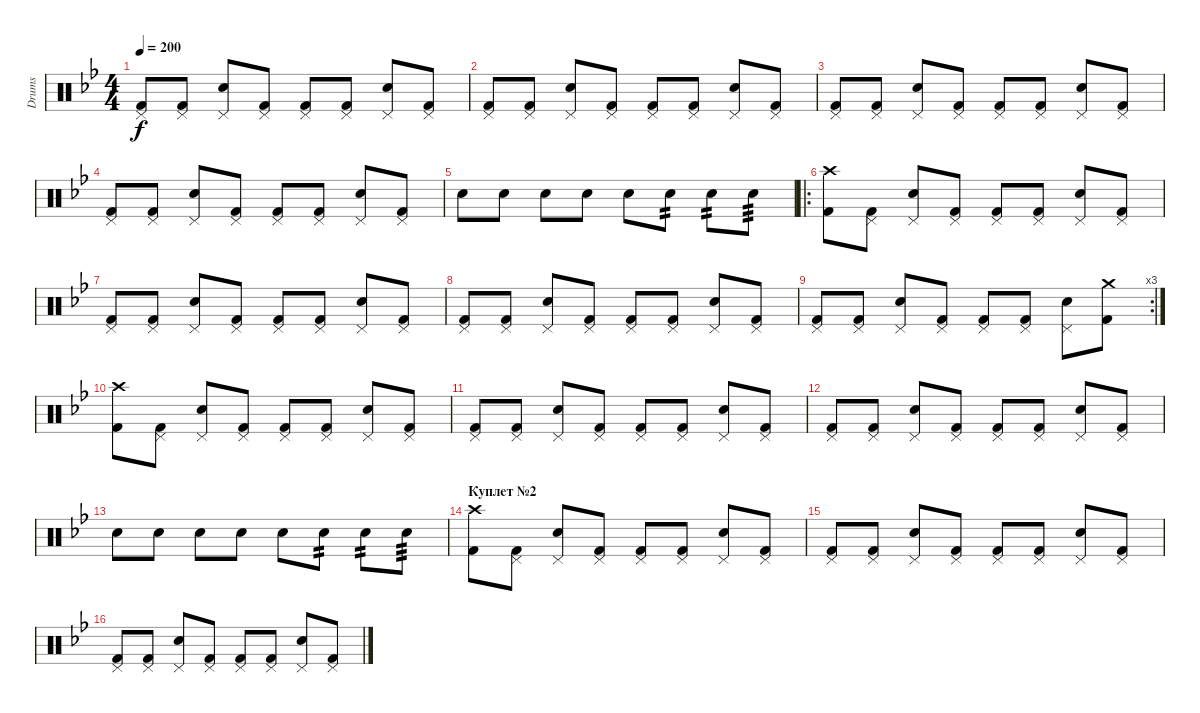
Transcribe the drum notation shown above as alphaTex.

\track ("Drums" "Drums") {instrument percussion}
\staff {score}
\articulation defaults
\ts (4 4)
\tempo 200
\clef neutral
\ks bb
("Pedal Hi-Hat (hit)" "Kick (hit) 2").8{dy f} ("Pedal Hi-Hat (hit)" "Kick (hit) 2").8 ("Pedal Hi-Hat (hit)" "Electric Snare (hit)").8 ("Pedal Hi-Hat (hit)" "Kick (hit) 2").8 ("Pedal Hi-Hat (hit)" "Kick (hit) 2").8 ("Pedal Hi-Hat (hit)" "Kick (hit) 2").8 ("Pedal Hi-Hat (hit)" "Electric Snare (hit)").8 ("Pedal Hi-Hat (hit)" "Kick (hit) 2").8 |
("Pedal Hi-Hat (hit)" "Kick (hit) 2").8 ("Pedal Hi-Hat (hit)" "Kick (hit) 2").8 ("Pedal Hi-Hat (hit)" "Electric Snare (hit)").8 ("Pedal Hi-Hat (hit)" "Kick (hit) 2").8 ("Pedal Hi-Hat (hit)" "Kick (hit) 2").8 ("Pedal Hi-Hat (hit)" "Kick (hit) 2").8 ("Pedal Hi-Hat (hit)" "Electric Snare (hit)").8 ("Pedal Hi-Hat (hit)" "Kick (hit) 2").8 |
("Pedal Hi-Hat (hit)" "Kick (hit) 2").8 ("Pedal Hi-Hat (hit)" "Kick (hit) 2").8 ("Pedal Hi-Hat (hit)" "Electric Snare (hit)").8 ("Pedal Hi-Hat (hit)" "Kick (hit) 2").8 ("Pedal Hi-Hat (hit)" "Kick (hit) 2").8 ("Pedal Hi-Hat (hit)" "Kick (hit) 2").8 ("Pedal Hi-Hat (hit)" "Electric Snare (hit)").8 ("Pedal Hi-Hat (hit)" "Kick (hit) 2").8 |
("Pedal Hi-Hat (hit)" "Kick (hit) 2").8 ("Pedal Hi-Hat (hit)" "Kick (hit) 2").8 ("Pedal Hi-Hat (hit)" "Electric Snare (hit)").8 ("Pedal Hi-Hat (hit)" "Kick (hit) 2").8 ("Pedal Hi-Hat (hit)" "Kick (hit) 2").8 ("Pedal Hi-Hat (hit)" "Kick (hit) 2").8 ("Pedal Hi-Hat (hit)" "Electric Snare (hit)").8 ("Pedal Hi-Hat (hit)" "Kick (hit) 2").8 |
"Electric Snare (hit)".8 "Electric Snare (hit)".8 "Electric Snare (hit)".8 "Electric Snare (hit)".8 "Electric Snare (hit)".8 "Electric Snare (hit)".8{tp 2} "Electric Snare (hit)".8{tp 2} "Electric Snare (hit)".8{tp 3} |
\ro
("Crash high (hit)" "Kick (hit) 2").8 ("Pedal Hi-Hat (hit)" "Kick (hit) 2").8 ("Pedal Hi-Hat (hit)" "Electric Snare (hit)").8 ("Pedal Hi-Hat (hit)" "Kick (hit) 2").8 ("Pedal Hi-Hat (hit)" "Kick (hit) 2").8 ("Pedal Hi-Hat (hit)" "Kick (hit) 2").8 ("Pedal Hi-Hat (hit)" "Electric Snare (hit)").8 ("Pedal Hi-Hat (hit)" "Kick (hit) 2").8 |
("Pedal Hi-Hat (hit)" "Kick (hit) 2").8 ("Pedal Hi-Hat (hit)" "Kick (hit) 2").8 ("Pedal Hi-Hat (hit)" "Electric Snare (hit)").8 ("Pedal Hi-Hat (hit)" "Kick (hit) 2").8 ("Pedal Hi-Hat (hit)" "Kick (hit) 2").8 ("Pedal Hi-Hat (hit)" "Kick (hit) 2").8 ("Pedal Hi-Hat (hit)" "Electric Snare (hit)").8 ("Pedal Hi-Hat (hit)" "Kick (hit) 2").8 |
("Pedal Hi-Hat (hit)" "Kick (hit) 2").8 ("Pedal Hi-Hat (hit)" "Kick (hit) 2").8 ("Pedal Hi-Hat (hit)" "Electric Snare (hit)").8 ("Pedal Hi-Hat (hit)" "Kick (hit) 2").8 ("Pedal Hi-Hat (hit)" "Kick (hit) 2").8 ("Pedal Hi-Hat (hit)" "Kick (hit) 2").8 ("Pedal Hi-Hat (hit)" "Electric Snare (hit)").8 ("Pedal Hi-Hat (hit)" "Kick (hit) 2").8 |
\rc 3
("Pedal Hi-Hat (hit)" "Kick (hit) 2").8 ("Pedal Hi-Hat (hit)" "Kick (hit) 2").8 ("Pedal Hi-Hat (hit)" "Electric Snare (hit)").8 ("Pedal Hi-Hat (hit)" "Kick (hit) 2").8 ("Pedal Hi-Hat (hit)" "Kick (hit) 2").8 ("Pedal Hi-Hat (hit)" "Kick (hit) 2").8 ("Pedal Hi-Hat (hit)" "Electric Snare (hit)").8 ("Crash medium (hit)" "Kick (hit) 2").8 |
("Crash high (hit)" "Kick (hit) 2").8 ("Pedal Hi-Hat (hit)" "Kick (hit) 2").8 ("Pedal Hi-Hat (hit)" "Electric Snare (hit)").8 ("Pedal Hi-Hat (hit)" "Kick (hit) 2").8 ("Pedal Hi-Hat (hit)" "Kick (hit) 2").8 ("Pedal Hi-Hat (hit)" "Kick (hit) 2").8 ("Pedal Hi-Hat (hit)" "Electric Snare (hit)").8 ("Pedal Hi-Hat (hit)" "Kick (hit) 2").8 |
("Pedal Hi-Hat (hit)" "Kick (hit) 2").8 ("Pedal Hi-Hat (hit)" "Kick (hit) 2").8 ("Pedal Hi-Hat (hit)" "Electric Snare (hit)").8 ("Pedal Hi-Hat (hit)" "Kick (hit) 2").8 ("Pedal Hi-Hat (hit)" "Kick (hit) 2").8 ("Pedal Hi-Hat (hit)" "Kick (hit) 2").8 ("Pedal Hi-Hat (hit)" "Electric Snare (hit)").8 ("Pedal Hi-Hat (hit)" "Kick (hit) 2").8 |
("Pedal Hi-Hat (hit)" "Kick (hit) 2").8 ("Pedal Hi-Hat (hit)" "Kick (hit) 2").8 ("Pedal Hi-Hat (hit)" "Electric Snare (hit)").8 ("Pedal Hi-Hat (hit)" "Kick (hit) 2").8 ("Pedal Hi-Hat (hit)" "Kick (hit) 2").8 ("Pedal Hi-Hat (hit)" "Kick (hit) 2").8 ("Pedal Hi-Hat (hit)" "Electric Snare (hit)").8 ("Pedal Hi-Hat (hit)" "Kick (hit) 2").8 |
"Electric Snare (hit)".8 "Electric Snare (hit)".8 "Electric Snare (hit)".8 "Electric Snare (hit)".8 "Electric Snare (hit)".8 "Electric Snare (hit)".8{tp 2} "Electric Snare (hit)".8{tp 2} "Electric Snare (hit)".8{tp 3} |
\section ("" "Куплет №2")
("Crash high (hit)" "Kick (hit) 2").8 ("Pedal Hi-Hat (hit)" "Kick (hit) 2").8 ("Pedal Hi-Hat (hit)" "Electric Snare (hit)").8 ("Pedal Hi-Hat (hit)" "Kick (hit) 2").8 ("Pedal Hi-Hat (hit)" "Kick (hit) 2").8 ("Pedal Hi-Hat (hit)" "Kick (hit) 2").8 ("Pedal Hi-Hat (hit)" "Electric Snare (hit)").8 ("Pedal Hi-Hat (hit)" "Kick (hit) 2").8 |
("Pedal Hi-Hat (hit)" "Kick (hit) 2").8 ("Pedal Hi-Hat (hit)" "Kick (hit) 2").8 ("Pedal Hi-Hat (hit)" "Electric Snare (hit)").8 ("Pedal Hi-Hat (hit)" "Kick (hit) 2").8 ("Pedal Hi-Hat (hit)" "Kick (hit) 2").8 ("Pedal Hi-Hat (hit)" "Kick (hit) 2").8 ("Pedal Hi-Hat (hit)" "Electric Snare (hit)").8 ("Pedal Hi-Hat (hit)" "Kick (hit) 2").8 |
("Pedal Hi-Hat (hit)" "Kick (hit) 2").8 ("Pedal Hi-Hat (hit)" "Kick (hit) 2").8 ("Pedal Hi-Hat (hit)" "Electric Snare (hit)").8 ("Pedal Hi-Hat (hit)" "Kick (hit) 2").8 ("Pedal Hi-Hat (hit)" "Kick (hit) 2").8 ("Pedal Hi-Hat (hit)" "Kick (hit) 2").8 ("Pedal Hi-Hat (hit)" "Electric Snare (hit)").8 ("Pedal Hi-Hat (hit)" "Kick (hit) 2").8
